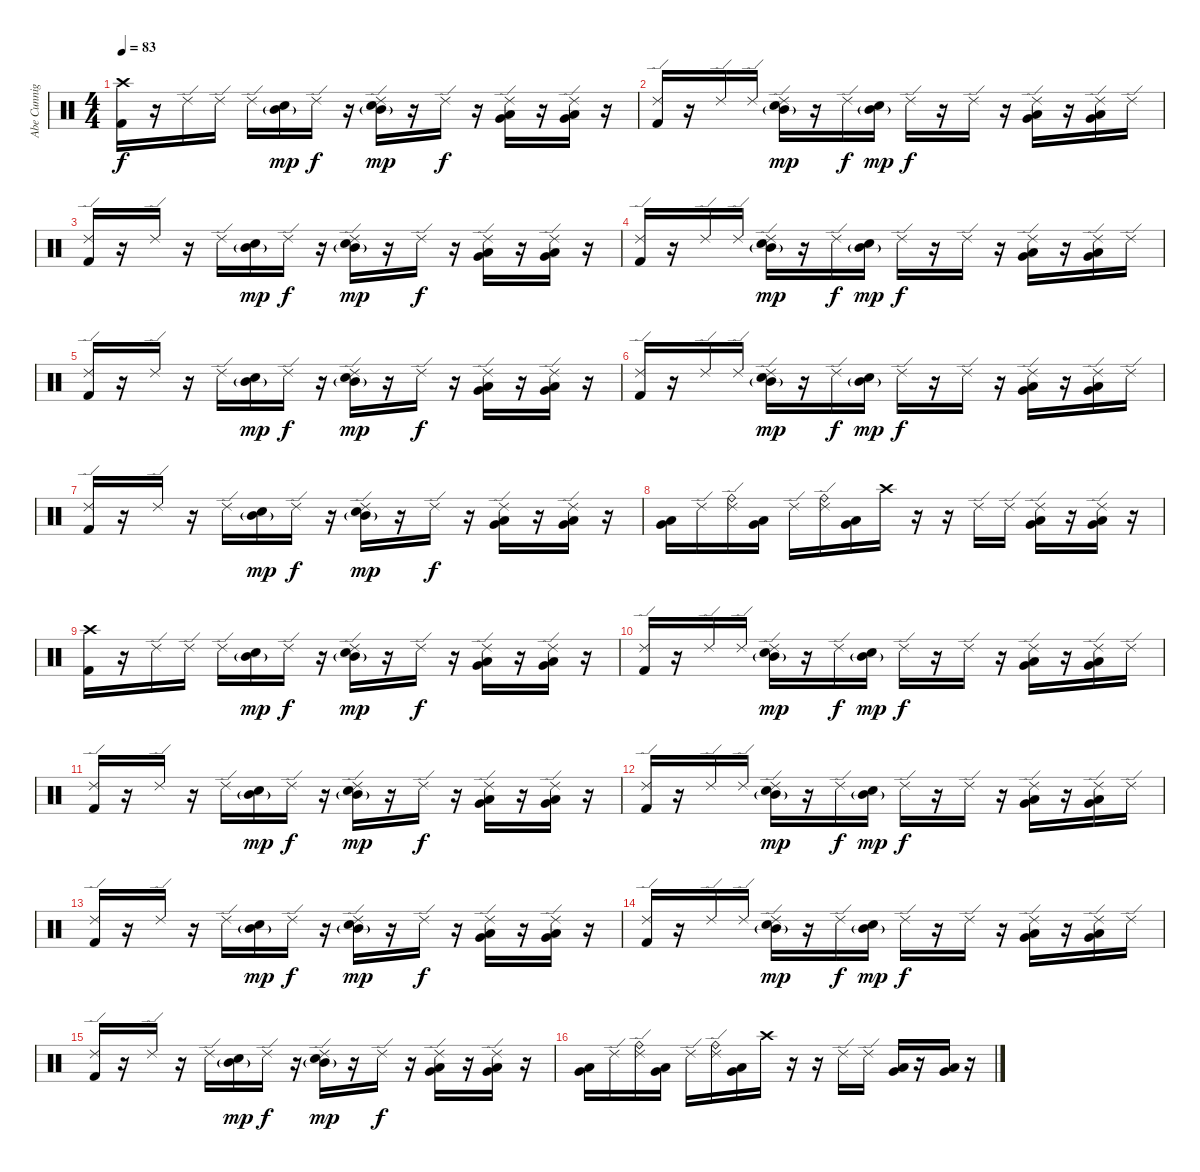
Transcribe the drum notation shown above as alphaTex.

\track ("Abe Cunnigham" "Abe Cunnig") {instrument percussion}
\staff {score}
\articulation defaults
\ts (4 4)
\tempo 83
\clef neutral
\ks c
("Crash high (hit)" "Kick (hit) 2").16{dy f} r.16 "Ride (edge) 2".16 "Ride (edge) 2".16 "Ride (edge) 2".16 ("Mid Tom (hit)"{g} "Electric Snare (hit)").16{dy mp} "Ride (edge) 2".16{dy f} r.16 ("Ride (edge) 2" "Mid Tom (hit)"{g} "Electric Snare (hit)").16{dy mp} r.16 "Ride (edge) 2".16{dy f} r.16 ("Ride (edge) 2" "Very Low Tom (hit)" "Low Tom (hit)").16 r.16 ("Ride (edge) 2" "Very Low Tom (hit)" "Low Tom (hit)").16 r.16 |
("Ride (edge) 2" "Kick (hit) 2").16 r.16 "Ride (edge) 2".16 "Ride (edge) 2".16 ("Ride (edge) 2" "Mid Tom (hit)"{g} "Electric Snare (hit)").16{dy mp} r.16 "Ride (edge) 2".16{dy f} ("Mid Tom (hit)"{g} "Electric Snare (hit)").16{dy mp} "Ride (edge) 2".16{dy f} r.16 "Ride (edge) 2".16 r.16 ("Ride (edge) 2" "Very Low Tom (hit)" "Low Tom (hit)").16 r.16 ("Ride (edge) 2" "Very Low Tom (hit)" "Low Tom (hit)").16 "Ride (edge) 2".16 |
("Ride (edge) 2" "Kick (hit) 2").16 r.16 "Ride (edge) 2".16 r.16 "Ride (edge) 2".16 ("Mid Tom (hit)"{g} "Electric Snare (hit)").16{dy mp} "Ride (edge) 2".16{dy f} r.16 ("Ride (edge) 2" "Mid Tom (hit)"{g} "Electric Snare (hit)").16{dy mp} r.16 "Ride (edge) 2".16{dy f} r.16 ("Ride (edge) 2" "Very Low Tom (hit)" "Low Tom (hit)").16 r.16 ("Ride (edge) 2" "Very Low Tom (hit)" "Low Tom (hit)").16 r.16 |
("Ride (edge) 2" "Kick (hit) 2").16 r.16 "Ride (edge) 2".16 "Ride (edge) 2".16 ("Ride (edge) 2" "Mid Tom (hit)"{g} "Electric Snare (hit)").16{dy mp} r.16 "Ride (edge) 2".16{dy f} ("Mid Tom (hit)"{g} "Electric Snare (hit)").16{dy mp} "Ride (edge) 2".16{dy f} r.16 "Ride (edge) 2".16 r.16 ("Ride (edge) 2" "Very Low Tom (hit)" "Low Tom (hit)").16 r.16 ("Ride (edge) 2" "Very Low Tom (hit)" "Low Tom (hit)").16 "Ride (edge) 2".16 |
("Ride (edge) 2" "Kick (hit) 2").16 r.16 "Ride (edge) 2".16 r.16 "Ride (edge) 2".16 ("Mid Tom (hit)"{g} "Electric Snare (hit)").16{dy mp} "Ride (edge) 2".16{dy f} r.16 ("Ride (edge) 2" "Mid Tom (hit)"{g} "Electric Snare (hit)").16{dy mp} r.16 "Ride (edge) 2".16{dy f} r.16 ("Ride (edge) 2" "Very Low Tom (hit)" "Low Tom (hit)").16 r.16 ("Ride (edge) 2" "Very Low Tom (hit)" "Low Tom (hit)").16 r.16 |
("Ride (edge) 2" "Kick (hit) 2").16 r.16 "Ride (edge) 2".16 "Ride (edge) 2".16 ("Ride (edge) 2" "Mid Tom (hit)"{g} "Electric Snare (hit)").16{dy mp} r.16 "Ride (edge) 2".16{dy f} ("Mid Tom (hit)"{g} "Electric Snare (hit)").16{dy mp} "Ride (edge) 2".16{dy f} r.16 "Ride (edge) 2".16 r.16 ("Ride (edge) 2" "Very Low Tom (hit)" "Low Tom (hit)").16 r.16 ("Ride (edge) 2" "Very Low Tom (hit)" "Low Tom (hit)").16 "Ride (edge) 2".16 |
("Ride (edge) 2" "Kick (hit) 2").16 r.16 "Ride (edge) 2".16 r.16 "Ride (edge) 2".16 ("Mid Tom (hit)"{g} "Electric Snare (hit)").16{dy mp} "Ride (edge) 2".16{dy f} r.16 ("Ride (edge) 2" "Mid Tom (hit)"{g} "Electric Snare (hit)").16{dy mp} r.16 "Ride (edge) 2".16{dy f} r.16 ("Ride (edge) 2" "Very Low Tom (hit)" "Low Tom (hit)").16 r.16 ("Ride (edge) 2" "Very Low Tom (hit)" "Low Tom (hit)").16 r.16 |
("Very Low Tom (hit)" "Low Tom (hit)").16 "Ride (edge) 2".16 ("Ride (bell)" "Ride (edge) 2").16 ("Very Low Tom (hit)" "Low Tom (hit)").16 "Ride (edge) 2".16 ("Ride (bell)" "Ride (edge) 2").16 ("Very Low Tom (hit)" "Low Tom (hit)").16 "Crash high (hit)".16 r.16 r.16 "Ride (edge) 2".16 "Ride (edge) 2".16 ("Ride (edge) 2" "Very Low Tom (hit)" "Low Tom (hit)").16 r.16 ("Ride (edge) 2" "Very Low Tom (hit)" "Low Tom (hit)").16 r.16 |
("Crash high (hit)" "Kick (hit) 2").16 r.16 "Ride (edge) 2".16 "Ride (edge) 2".16 "Ride (edge) 2".16 ("Mid Tom (hit)"{g} "Electric Snare (hit)").16{dy mp} "Ride (edge) 2".16{dy f} r.16 ("Ride (edge) 2" "Mid Tom (hit)"{g} "Electric Snare (hit)").16{dy mp} r.16 "Ride (edge) 2".16{dy f} r.16 ("Ride (edge) 2" "Very Low Tom (hit)" "Low Tom (hit)").16 r.16 ("Ride (edge) 2" "Very Low Tom (hit)" "Low Tom (hit)").16 r.16 |
("Ride (edge) 2" "Kick (hit) 2").16 r.16 "Ride (edge) 2".16 "Ride (edge) 2".16 ("Ride (edge) 2" "Mid Tom (hit)"{g} "Electric Snare (hit)").16{dy mp} r.16 "Ride (edge) 2".16{dy f} ("Mid Tom (hit)"{g} "Electric Snare (hit)").16{dy mp} "Ride (edge) 2".16{dy f} r.16 "Ride (edge) 2".16 r.16 ("Ride (edge) 2" "Very Low Tom (hit)" "Low Tom (hit)").16 r.16 ("Ride (edge) 2" "Very Low Tom (hit)" "Low Tom (hit)").16 "Ride (edge) 2".16 |
("Ride (edge) 2" "Kick (hit) 2").16 r.16 "Ride (edge) 2".16 r.16 "Ride (edge) 2".16 ("Mid Tom (hit)"{g} "Electric Snare (hit)").16{dy mp} "Ride (edge) 2".16{dy f} r.16 ("Ride (edge) 2" "Mid Tom (hit)"{g} "Electric Snare (hit)").16{dy mp} r.16 "Ride (edge) 2".16{dy f} r.16 ("Ride (edge) 2" "Very Low Tom (hit)" "Low Tom (hit)").16 r.16 ("Ride (edge) 2" "Very Low Tom (hit)" "Low Tom (hit)").16 r.16 |
("Ride (edge) 2" "Kick (hit) 2").16 r.16 "Ride (edge) 2".16 "Ride (edge) 2".16 ("Ride (edge) 2" "Mid Tom (hit)"{g} "Electric Snare (hit)").16{dy mp} r.16 "Ride (edge) 2".16{dy f} ("Mid Tom (hit)"{g} "Electric Snare (hit)").16{dy mp} "Ride (edge) 2".16{dy f} r.16 "Ride (edge) 2".16 r.16 ("Ride (edge) 2" "Very Low Tom (hit)" "Low Tom (hit)").16 r.16 ("Ride (edge) 2" "Very Low Tom (hit)" "Low Tom (hit)").16 "Ride (edge) 2".16 |
("Ride (edge) 2" "Kick (hit) 2").16 r.16 "Ride (edge) 2".16 r.16 "Ride (edge) 2".16 ("Mid Tom (hit)"{g} "Electric Snare (hit)").16{dy mp} "Ride (edge) 2".16{dy f} r.16 ("Ride (edge) 2" "Mid Tom (hit)"{g} "Electric Snare (hit)").16{dy mp} r.16 "Ride (edge) 2".16{dy f} r.16 ("Ride (edge) 2" "Very Low Tom (hit)" "Low Tom (hit)").16 r.16 ("Ride (edge) 2" "Very Low Tom (hit)" "Low Tom (hit)").16 r.16 |
("Ride (edge) 2" "Kick (hit) 2").16 r.16 "Ride (edge) 2".16 "Ride (edge) 2".16 ("Ride (edge) 2" "Mid Tom (hit)"{g} "Electric Snare (hit)").16{dy mp} r.16 "Ride (edge) 2".16{dy f} ("Mid Tom (hit)"{g} "Electric Snare (hit)").16{dy mp} "Ride (edge) 2".16{dy f} r.16 "Ride (edge) 2".16 r.16 ("Ride (edge) 2" "Very Low Tom (hit)" "Low Tom (hit)").16 r.16 ("Ride (edge) 2" "Very Low Tom (hit)" "Low Tom (hit)").16 "Ride (edge) 2".16 |
("Ride (edge) 2" "Kick (hit) 2").16 r.16 "Ride (edge) 2".16 r.16 "Ride (edge) 2".16 ("Mid Tom (hit)"{g} "Electric Snare (hit)").16{dy mp} "Ride (edge) 2".16{dy f} r.16 ("Ride (edge) 2" "Mid Tom (hit)"{g} "Electric Snare (hit)").16{dy mp} r.16 "Ride (edge) 2".16{dy f} r.16 ("Ride (edge) 2" "Very Low Tom (hit)" "Low Tom (hit)").16 r.16 ("Ride (edge) 2" "Very Low Tom (hit)" "Low Tom (hit)").16 r.16 |
("Very Low Tom (hit)" "Low Tom (hit)").16 "Ride (edge) 2".16 ("Ride (bell)" "Ride (edge) 2").16 ("Very Low Tom (hit)" "Low Tom (hit)").16 "Ride (edge) 2".16 ("Ride (bell)" "Ride (edge) 2").16 ("Very Low Tom (hit)" "Low Tom (hit)").16 "Crash high (hit)".16 r.16 r.16 "Ride (edge) 2".16 "Ride (edge) 2".16 ("Very Low Tom (hit)" "Low Tom (hit)").16 r.16 ("Very Low Tom (hit)" "Low Tom (hit)").16 r.16
